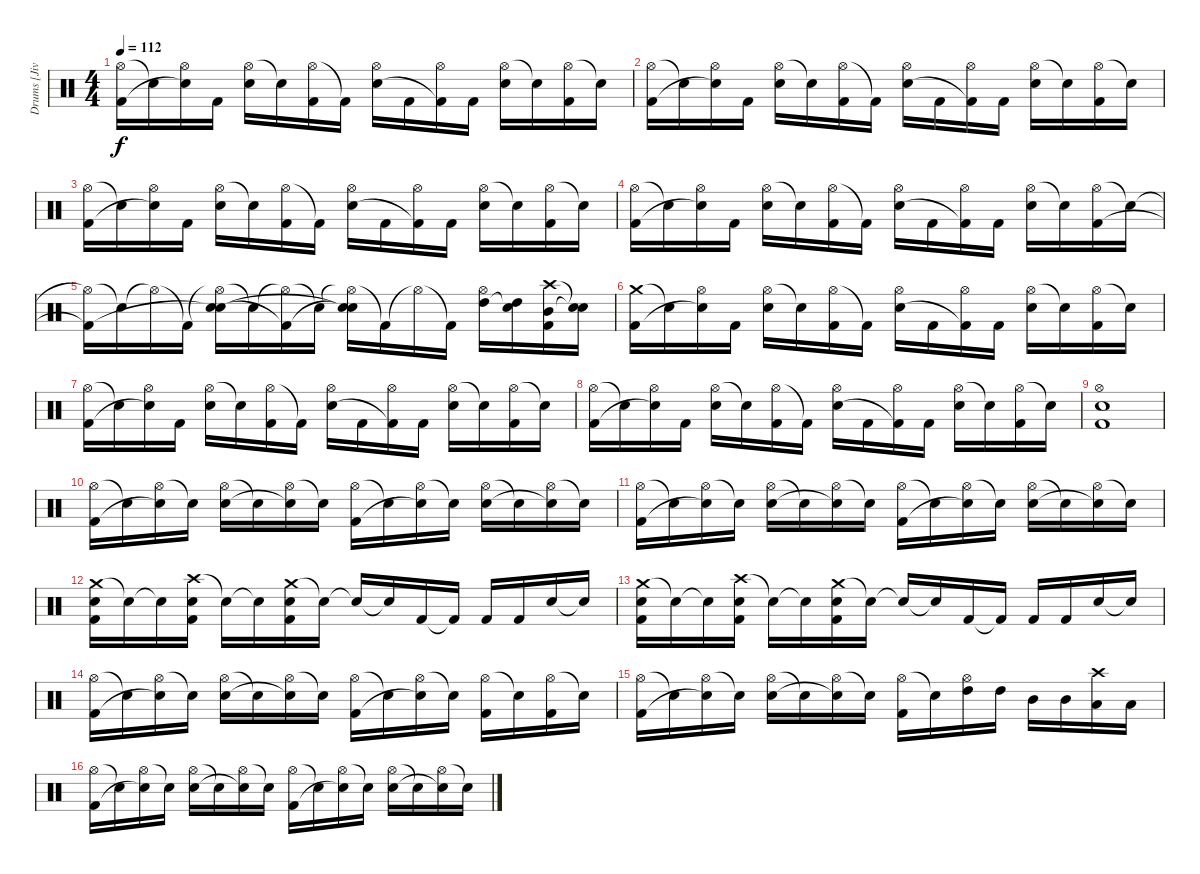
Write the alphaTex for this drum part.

\track ("Drums [Jivarp]" "Drums [Jiv") {instrument percussion}
\staff {score}
\articulation defaults
\ts (4 4)
\tempo 112
\clef neutral
\ks c
("Hi-Hat (open)" "Kick (hit) 2").16{dy f} "Snare (hit)"{t}.16 ("Hi-Hat (open)" "Snare (hit)"{t}).16 "Kick (hit) 2".16 ("Hi-Hat (open)" "Electric Snare (hit)").16 "Snare (hit)"{t}.16 ("Hi-Hat (open)" "Kick (hit) 2").16 "Kick (hit) 2"{t}.16 ("Hi-Hat (open)" "Electric Snare (hit)").16 "Kick (hit) 2".16 ("Hi-Hat (open)" "Kick (hit) 2"{t}).16 "Kick (hit) 2".16 ("Hi-Hat (open)" "Electric Snare (hit)").16 "Snare (hit)"{t}.16 ("Hi-Hat (open)" "Kick (hit) 2").16 "Snare (hit)"{t}.16 |
("Hi-Hat (open)" "Kick (hit) 2").16 "Snare (hit)"{t}.16 ("Hi-Hat (open)" "Snare (hit)"{t}).16 "Kick (hit) 2".16 ("Hi-Hat (open)" "Electric Snare (hit)").16 "Snare (hit)"{t}.16 ("Hi-Hat (open)" "Kick (hit) 2").16 "Kick (hit) 2"{t}.16 ("Hi-Hat (open)" "Electric Snare (hit)").16 "Kick (hit) 2".16 ("Hi-Hat (open)" "Kick (hit) 2"{t}).16 "Kick (hit) 2".16 ("Hi-Hat (open)" "Electric Snare (hit)").16 "Snare (hit)"{t}.16 ("Hi-Hat (open)" "Kick (hit) 2").16 "Snare (hit)"{t}.16 |
("Hi-Hat (open)" "Kick (hit) 2").16 "Snare (hit)"{t}.16 ("Hi-Hat (open)" "Snare (hit)"{t}).16 "Kick (hit) 2".16 ("Hi-Hat (open)" "Electric Snare (hit)").16 "Snare (hit)"{t}.16 ("Hi-Hat (open)" "Kick (hit) 2").16 "Kick (hit) 2"{t}.16 ("Hi-Hat (open)" "Electric Snare (hit)").16 "Kick (hit) 2".16 ("Hi-Hat (open)" "Kick (hit) 2"{t}).16 "Kick (hit) 2".16 ("Hi-Hat (open)" "Electric Snare (hit)").16 "Snare (hit)"{t}.16 ("Hi-Hat (open)" "Kick (hit) 2").16 "Snare (hit)"{t}.16 |
("Hi-Hat (open)" "Kick (hit) 2").16 "Snare (hit)"{t}.16 ("Hi-Hat (open)" "Snare (hit)"{t}).16 "Kick (hit) 2".16 ("Hi-Hat (open)" "Electric Snare (hit)").16 "Snare (hit)"{t}.16 ("Hi-Hat (open)" "Kick (hit) 2").16 "Kick (hit) 2"{t}.16 ("Hi-Hat (open)" "Electric Snare (hit)").16 "Kick (hit) 2".16 ("Hi-Hat (open)" "Kick (hit) 2"{t}).16 "Kick (hit) 2".16 ("Hi-Hat (open)" "Electric Snare (hit)").16 "Snare (hit)"{t}.16 ("Hi-Hat (open)" "Kick (hit) 2").16 "Snare (hit)"{t}.16 |
("Hi-Hat (open)"{t} "Kick (hit) 2"{t}).16 "Snare (hit)"{t}.16 "Hi-Hat (open)"{t}.16 "Kick (hit) 2"{t}.16 ("Hi-Hat (open)"{t} "Electric Snare (hit)"{t} "Snare (hit)").16 "Snare (hit)"{t}.16 ("Hi-Hat (open)"{t} "Kick (hit) 2"{t}).16 "Snare (hit)"{t}.16 ("Hi-Hat (open)"{t} "Electric Snare (hit)"{t} "Snare (hit)"{t}).16 "Kick (hit) 2"{t}.16 "Hi-Hat (open)"{t}.16 "Kick (hit) 2"{t}.16 ("Hi-Hat (open)" "High Tom (hit)").16 ("High Tom (hit)" "Snare (hit)"{t}).16 ("Crash high (hit)" "Mid Tom (hit)" "Kick (hit) 2").16 ("Snare (hit)"{t} "Snare (hit)"{t}).16 |
("Crash medium (hit)" "Kick (hit) 2").16 "Snare (hit)"{t}.16 ("Hi-Hat (open)" "Snare (hit)"{t}).16 "Kick (hit) 2".16 ("Hi-Hat (open)" "Electric Snare (hit)").16 "Snare (hit)"{t}.16 ("Hi-Hat (open)" "Kick (hit) 2").16 "Kick (hit) 2"{t}.16 ("Hi-Hat (open)" "Electric Snare (hit)").16 "Kick (hit) 2".16 ("Hi-Hat (open)" "Kick (hit) 2"{t}).16 "Kick (hit) 2".16 ("Hi-Hat (open)" "Electric Snare (hit)").16 "Snare (hit)"{t}.16 ("Hi-Hat (open)" "Kick (hit) 2").16 "Snare (hit)"{t}.16 |
("Hi-Hat (open)" "Kick (hit) 2").16 "Snare (hit)"{t}.16 ("Hi-Hat (open)" "Snare (hit)"{t}).16 "Kick (hit) 2".16 ("Hi-Hat (open)" "Electric Snare (hit)").16 "Snare (hit)"{t}.16 ("Hi-Hat (open)" "Kick (hit) 2").16 "Kick (hit) 2"{t}.16 ("Hi-Hat (open)" "Electric Snare (hit)").16 "Kick (hit) 2".16 ("Hi-Hat (open)" "Kick (hit) 2"{t}).16 "Kick (hit) 2".16 ("Hi-Hat (open)" "Electric Snare (hit)").16 "Snare (hit)"{t}.16 ("Hi-Hat (open)" "Kick (hit) 2").16 "Snare (hit)"{t}.16 |
("Hi-Hat (open)" "Kick (hit) 2").16 "Snare (hit)"{t}.16 ("Hi-Hat (open)" "Snare (hit)"{t}).16 "Kick (hit) 2".16 ("Hi-Hat (open)" "Electric Snare (hit)").16 "Snare (hit)"{t}.16 ("Hi-Hat (open)" "Kick (hit) 2").16 "Kick (hit) 2"{t}.16 ("Hi-Hat (open)" "Electric Snare (hit)").16 "Kick (hit) 2".16 ("Hi-Hat (open)" "Kick (hit) 2"{t}).16 "Kick (hit) 2".16 ("Hi-Hat (open)" "Electric Snare (hit)").16 "Snare (hit)"{t}.16 ("Hi-Hat (open)" "Kick (hit) 2").16 "Snare (hit)"{t}.16 |
("Hi-Hat (open)" "Electric Snare (hit)" "Kick (hit) 2").1 |
("Hi-Hat (open)" "Kick (hit) 2").16 "Snare (hit)"{t}.16 ("Hi-Hat (open)" "Snare (hit)"{t}).16 "Snare (hit)"{t}.16 ("Hi-Hat (open)" "Electric Snare (hit)").16 "Snare (hit)"{t}.16 ("Hi-Hat (open)" "Snare (hit)"{t}).16 "Snare (hit)"{t}.16 ("Hi-Hat (open)" "Kick (hit) 2").16 "Snare (hit)"{t}.16 ("Hi-Hat (open)" "Snare (hit)"{t}).16 "Snare (hit)"{t}.16 ("Hi-Hat (open)" "Electric Snare (hit)").16 "Snare (hit)"{t}.16 ("Hi-Hat (open)" "Snare (hit)"{t}).16 "Snare (hit)"{t}.16 |
("Hi-Hat (open)" "Kick (hit) 2").16 "Snare (hit)"{t}.16 ("Hi-Hat (open)" "Snare (hit)"{t}).16 "Snare (hit)"{t}.16 ("Hi-Hat (open)" "Electric Snare (hit)").16 "Snare (hit)"{t}.16 ("Hi-Hat (open)" "Snare (hit)"{t}).16 "Snare (hit)"{t}.16 ("Hi-Hat (open)" "Kick (hit) 2").16 "Snare (hit)"{t}.16 ("Hi-Hat (open)" "Snare (hit)"{t}).16 "Snare (hit)"{t}.16 ("Hi-Hat (open)" "Electric Snare (hit)").16 "Snare (hit)"{t}.16 ("Hi-Hat (open)" "Snare (hit)"{t}).16 "Snare (hit)"{t}.16 |
("Crash medium (hit)" "Electric Snare (hit)" "Kick (hit) 2").16 "Snare (hit)"{t}.16 "Snare (hit)"{t}.16 ("Crash high (hit)" "Electric Snare (hit)" "Kick (hit) 2").16 "Snare (hit)"{t}.16 "Snare (hit)"{t}.16 ("Crash medium (hit)" "Electric Snare (hit)" "Kick (hit) 2").16 "Snare (hit)"{t}.16 "Snare (hit)"{t}.16 "Snare (hit)"{t}.16 "Kick (hit) 2".16 "Kick (hit) 2"{t}.16 "Kick (hit) 2".16 "Kick (hit) 2".16 "Electric Snare (hit)".16 "Snare (hit)"{t}.16 |
("Crash medium (hit)" "Electric Snare (hit)" "Kick (hit) 2").16 "Snare (hit)"{t}.16 "Snare (hit)"{t}.16 ("Crash high (hit)" "Electric Snare (hit)" "Kick (hit) 2").16 "Snare (hit)"{t}.16 "Snare (hit)"{t}.16 ("Crash medium (hit)" "Electric Snare (hit)" "Kick (hit) 2").16 "Snare (hit)"{t}.16 "Snare (hit)"{t}.16 "Snare (hit)"{t}.16 "Kick (hit) 2".16 "Kick (hit) 2"{t}.16 "Kick (hit) 2".16 "Kick (hit) 2".16 "Electric Snare (hit)".16 "Snare (hit)"{t}.16 |
("Hi-Hat (open)" "Kick (hit) 2").16 "Snare (hit)"{t}.16 ("Hi-Hat (open)" "Snare (hit)"{t}).16 "Snare (hit)"{t}.16 ("Hi-Hat (open)" "Electric Snare (hit)").16 "Snare (hit)"{t}.16 ("Hi-Hat (open)" "Snare (hit)"{t}).16 "Snare (hit)"{t}.16 ("Hi-Hat (open)" "Kick (hit) 2").16 "Snare (hit)"{t}.16 ("Hi-Hat (open)" "Snare (hit)"{t}).16 "Snare (hit)"{t}.16 ("Hi-Hat (open)" "Kick (hit) 2").16 "Snare (hit)"{t}.16 ("Hi-Hat (open)" "Kick (hit) 2").16 "Snare (hit)"{t}.16 |
("Hi-Hat (open)" "Kick (hit) 2").16 "Snare (hit)"{t}.16 ("Hi-Hat (open)" "Snare (hit)"{t}).16 "Snare (hit)"{t}.16 ("Hi-Hat (open)" "Electric Snare (hit)").16 "Snare (hit)"{t}.16 ("Hi-Hat (open)" "Snare (hit)"{t}).16 "Snare (hit)"{t}.16 ("Hi-Hat (open)" "Kick (hit) 2").16 "Snare (hit)"{t}.16 ("Hi-Hat (open)" "High Tom (hit)").16 "High Tom (hit)".16 "Mid Tom (hit)".16 "Mid Tom (hit)".16 ("Crash high (hit)" "Low Tom (hit)").16 "Low Tom (hit)".16 |
("Hi-Hat (open)" "Kick (hit) 2").16 "Snare (hit)"{t}.16 ("Hi-Hat (open)" "Snare (hit)"{t}).16 "Snare (hit)"{t}.16 ("Hi-Hat (open)" "Electric Snare (hit)").16 "Snare (hit)"{t}.16 ("Hi-Hat (open)" "Snare (hit)"{t}).16 "Snare (hit)"{t}.16 ("Hi-Hat (open)" "Kick (hit) 2").16 "Snare (hit)"{t}.16 ("Hi-Hat (open)" "Snare (hit)"{t}).16 "Snare (hit)"{t}.16 ("Hi-Hat (open)" "Electric Snare (hit)").16 "Snare (hit)"{t}.16 ("Hi-Hat (open)" "Snare (hit)"{t}).16 "Snare (hit)"{t}.16
